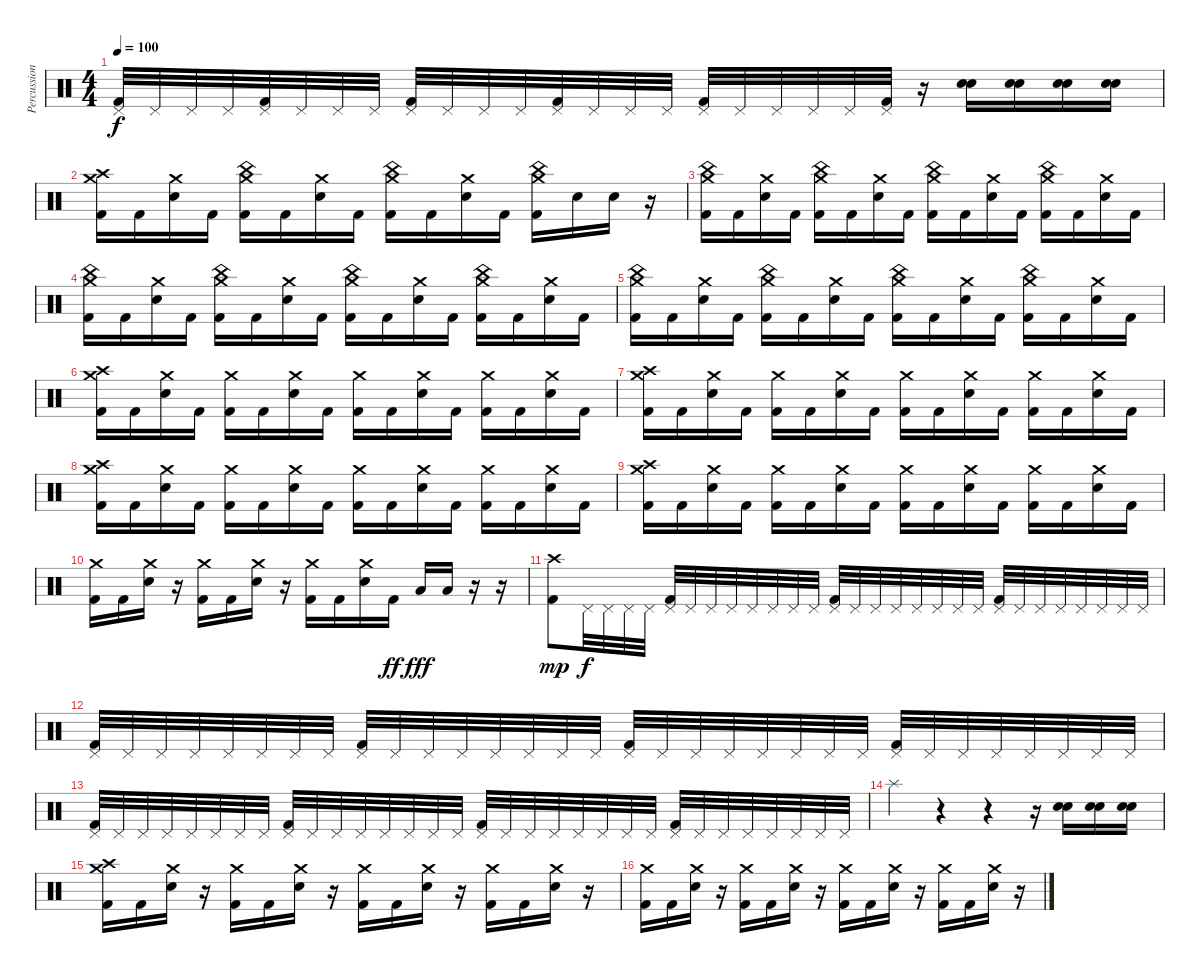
\track ("Percussion" "Percussion") {instrument percussion}
\staff {score}
\articulation defaults
\ts (4 4)
\tempo 100
\clef neutral
\ks c
("Pedal Hi-Hat (hit)" "Kick (hit) 2").32{dy f} "Pedal Hi-Hat (hit)".32 "Pedal Hi-Hat (hit)".32 "Pedal Hi-Hat (hit)".32 ("Pedal Hi-Hat (hit)" "Kick (hit) 2").32 "Pedal Hi-Hat (hit)".32 "Pedal Hi-Hat (hit)".32 "Pedal Hi-Hat (hit)".32 ("Pedal Hi-Hat (hit)" "Kick (hit) 2").32 "Pedal Hi-Hat (hit)".32 "Pedal Hi-Hat (hit)".32 "Pedal Hi-Hat (hit)".32 ("Pedal Hi-Hat (hit)" "Kick (hit) 2").32 "Pedal Hi-Hat (hit)".32 "Pedal Hi-Hat (hit)".32 "Pedal Hi-Hat (hit)".32 ("Pedal Hi-Hat (hit)" "Kick (hit) 2").32 "Pedal Hi-Hat (hit)".32 "Pedal Hi-Hat (hit)".32 "Pedal Hi-Hat (hit)".32 "Pedal Hi-Hat (hit)".32 ("Pedal Hi-Hat (hit)" "Kick (hit) 2").32 r.16 ("Electric Snare (hit)" "Electric Snare (hit)").16 ("Electric Snare (hit)" "Electric Snare (hit)").16 ("Electric Snare (hit)" "Electric Snare (hit)").16 ("Electric Snare (hit)" "Electric Snare (hit)").16 |
("Crash medium (hit)" "Crash high (hit)" "Kick (hit) 2").16 "Kick (hit) 2".16 ("Crash medium (hit)" "Electric Snare (hit)").16 "Kick (hit) 2".16 ("Crash medium (hit)" "China (hit)" "Kick (hit) 2").16 "Kick (hit) 2".16 ("Crash medium (hit)" "Electric Snare (hit)").16 "Kick (hit) 2".16 ("Crash medium (hit)" "China (hit)" "Kick (hit) 2").16 "Kick (hit) 2".16 ("Crash medium (hit)" "Electric Snare (hit)").16 "Kick (hit) 2".16 ("Crash medium (hit)" "China (hit)" "Kick (hit) 2").16 "Electric Snare (hit)".16 "Electric Snare (hit)".16 r.16 |
("Crash medium (hit)" "China (hit)" "Kick (hit) 2").16 "Kick (hit) 2".16 ("Crash medium (hit)" "Electric Snare (hit)").16 "Kick (hit) 2".16 ("Crash medium (hit)" "China (hit)" "Kick (hit) 2").16 "Kick (hit) 2".16 ("Crash medium (hit)" "Electric Snare (hit)").16 "Kick (hit) 2".16 ("Crash medium (hit)" "China (hit)" "Kick (hit) 2").16 "Kick (hit) 2".16 ("Crash medium (hit)" "Electric Snare (hit)").16 "Kick (hit) 2".16 ("Crash medium (hit)" "China (hit)" "Kick (hit) 2").16 "Kick (hit) 2".16 ("Crash medium (hit)" "Electric Snare (hit)").16 "Kick (hit) 2".16 |
("Crash medium (hit)" "China (hit)" "Kick (hit) 2").16 "Kick (hit) 2".16 ("Crash medium (hit)" "Electric Snare (hit)").16 "Kick (hit) 2".16 ("Crash medium (hit)" "China (hit)" "Kick (hit) 2").16 "Kick (hit) 2".16 ("Crash medium (hit)" "Electric Snare (hit)").16 "Kick (hit) 2".16 ("Crash medium (hit)" "China (hit)" "Kick (hit) 2").16 "Kick (hit) 2".16 ("Crash medium (hit)" "Electric Snare (hit)").16 "Kick (hit) 2".16 ("Crash medium (hit)" "China (hit)" "Kick (hit) 2").16 "Kick (hit) 2".16 ("Crash medium (hit)" "Electric Snare (hit)").16 "Kick (hit) 2".16 |
("Crash medium (hit)" "China (hit)" "Kick (hit) 2").16 "Kick (hit) 2".16 ("Crash medium (hit)" "Electric Snare (hit)").16 "Kick (hit) 2".16 ("Crash medium (hit)" "China (hit)" "Kick (hit) 2").16 "Kick (hit) 2".16 ("Crash medium (hit)" "Electric Snare (hit)").16 "Kick (hit) 2".16 ("Crash medium (hit)" "China (hit)" "Kick (hit) 2").16 "Kick (hit) 2".16 ("Crash medium (hit)" "Electric Snare (hit)").16 "Kick (hit) 2".16 ("Crash medium (hit)" "China (hit)" "Kick (hit) 2").16 "Kick (hit) 2".16 ("Crash medium (hit)" "Electric Snare (hit)").16 "Kick (hit) 2".16 |
("Crash medium (hit)" "Crash high (hit)" "Kick (hit) 2").16 "Kick (hit) 2".16 ("Crash medium (hit)" "Electric Snare (hit)").16 "Kick (hit) 2".16 ("Crash medium (hit)" "Kick (hit) 2").16 "Kick (hit) 2".16 ("Crash medium (hit)" "Electric Snare (hit)").16 "Kick (hit) 2".16 ("Crash medium (hit)" "Kick (hit) 2").16 "Kick (hit) 2".16 ("Crash medium (hit)" "Electric Snare (hit)").16 "Kick (hit) 2".16 ("Crash medium (hit)" "Kick (hit) 2").16 "Kick (hit) 2".16 ("Crash medium (hit)" "Electric Snare (hit)").16 "Kick (hit) 2".16 |
("Crash medium (hit)" "Crash high (hit)" "Kick (hit) 2").16 "Kick (hit) 2".16 ("Crash medium (hit)" "Electric Snare (hit)").16 "Kick (hit) 2".16 ("Crash medium (hit)" "Kick (hit) 2").16 "Kick (hit) 2".16 ("Crash medium (hit)" "Electric Snare (hit)").16 "Kick (hit) 2".16 ("Crash medium (hit)" "Kick (hit) 2").16 "Kick (hit) 2".16 ("Crash medium (hit)" "Electric Snare (hit)").16 "Kick (hit) 2".16 ("Crash medium (hit)" "Kick (hit) 2").16 "Kick (hit) 2".16 ("Crash medium (hit)" "Electric Snare (hit)").16 "Kick (hit) 2".16 |
("Crash medium (hit)" "Crash high (hit)" "Kick (hit) 2").16 "Kick (hit) 2".16 ("Crash medium (hit)" "Electric Snare (hit)").16 "Kick (hit) 2".16 ("Crash medium (hit)" "Kick (hit) 2").16 "Kick (hit) 2".16 ("Crash medium (hit)" "Electric Snare (hit)").16 "Kick (hit) 2".16 ("Crash medium (hit)" "Kick (hit) 2").16 "Kick (hit) 2".16 ("Crash medium (hit)" "Electric Snare (hit)").16 "Kick (hit) 2".16 ("Crash medium (hit)" "Kick (hit) 2").16 "Kick (hit) 2".16 ("Crash medium (hit)" "Electric Snare (hit)").16 "Kick (hit) 2".16 |
("Crash medium (hit)" "Crash high (hit)" "Kick (hit) 2").16 "Kick (hit) 2".16 ("Crash medium (hit)" "Electric Snare (hit)").16 "Kick (hit) 2".16 ("Crash medium (hit)" "Kick (hit) 2").16 "Kick (hit) 2".16 ("Crash medium (hit)" "Electric Snare (hit)").16 "Kick (hit) 2".16 ("Crash medium (hit)" "Kick (hit) 2").16 "Kick (hit) 2".16 ("Crash medium (hit)" "Electric Snare (hit)").16 "Kick (hit) 2".16 ("Crash medium (hit)" "Kick (hit) 2").16 "Kick (hit) 2".16 ("Crash medium (hit)" "Electric Snare (hit)").16 "Kick (hit) 2".16 |
("Crash medium (hit)" "Kick (hit) 2").16 "Kick (hit) 2".16 ("Crash medium (hit)" "Electric Snare (hit)").16 r.16 ("Crash medium (hit)" "Kick (hit) 2").16 "Kick (hit) 2".16 ("Crash medium (hit)" "Electric Snare (hit)").16 r.16 ("Crash medium (hit)" "Kick (hit) 2").16 "Kick (hit) 2".16 ("Crash medium (hit)" "Electric Snare (hit)").16 "Kick (hit) 2".16{dy ff} "Low Floor Tom (hit)".16{dy fff} "Low Floor Tom (hit)".16 r.16 r.16 |
("Crash high (hit)" "Kick (hit) 2").8{dy mp} "Pedal Hi-Hat (hit)".32{dy f} "Pedal Hi-Hat (hit)".32 "Pedal Hi-Hat (hit)".32 "Pedal Hi-Hat (hit)".32 ("Pedal Hi-Hat (hit)" "Kick (hit) 2").32 "Pedal Hi-Hat (hit)".32 "Pedal Hi-Hat (hit)".32 "Pedal Hi-Hat (hit)".32 "Pedal Hi-Hat (hit)".32 "Pedal Hi-Hat (hit)".32 "Pedal Hi-Hat (hit)".32 "Pedal Hi-Hat (hit)".32 ("Pedal Hi-Hat (hit)" "Kick (hit) 2").32 "Pedal Hi-Hat (hit)".32 "Pedal Hi-Hat (hit)".32 "Pedal Hi-Hat (hit)".32 "Pedal Hi-Hat (hit)".32 "Pedal Hi-Hat (hit)".32 "Pedal Hi-Hat (hit)".32 "Pedal Hi-Hat (hit)".32 ("Pedal Hi-Hat (hit)" "Kick (hit) 2").32 "Pedal Hi-Hat (hit)".32 "Pedal Hi-Hat (hit)".32 "Pedal Hi-Hat (hit)".32 "Pedal Hi-Hat (hit)".32 "Pedal Hi-Hat (hit)".32 "Pedal Hi-Hat (hit)".32 "Pedal Hi-Hat (hit)".32 |
("Pedal Hi-Hat (hit)" "Kick (hit) 2").32 "Pedal Hi-Hat (hit)".32 "Pedal Hi-Hat (hit)".32 "Pedal Hi-Hat (hit)".32 "Pedal Hi-Hat (hit)".32 "Pedal Hi-Hat (hit)".32 "Pedal Hi-Hat (hit)".32 "Pedal Hi-Hat (hit)".32 ("Pedal Hi-Hat (hit)" "Kick (hit) 2").32 "Pedal Hi-Hat (hit)".32 "Pedal Hi-Hat (hit)".32 "Pedal Hi-Hat (hit)".32 "Pedal Hi-Hat (hit)".32 "Pedal Hi-Hat (hit)".32 "Pedal Hi-Hat (hit)".32 "Pedal Hi-Hat (hit)".32 ("Pedal Hi-Hat (hit)" "Kick (hit) 2").32 "Pedal Hi-Hat (hit)".32 "Pedal Hi-Hat (hit)".32 "Pedal Hi-Hat (hit)".32 "Pedal Hi-Hat (hit)".32 "Pedal Hi-Hat (hit)".32 "Pedal Hi-Hat (hit)".32 "Pedal Hi-Hat (hit)".32 ("Pedal Hi-Hat (hit)" "Kick (hit) 2").32 "Pedal Hi-Hat (hit)".32 "Pedal Hi-Hat (hit)".32 "Pedal Hi-Hat (hit)".32 "Pedal Hi-Hat (hit)".32 "Pedal Hi-Hat (hit)".32 "Pedal Hi-Hat (hit)".32 "Pedal Hi-Hat (hit)".32 |
("Pedal Hi-Hat (hit)" "Kick (hit) 2").32 "Pedal Hi-Hat (hit)".32 "Pedal Hi-Hat (hit)".32 "Pedal Hi-Hat (hit)".32 "Pedal Hi-Hat (hit)".32 "Pedal Hi-Hat (hit)".32 "Pedal Hi-Hat (hit)".32 "Pedal Hi-Hat (hit)".32 ("Pedal Hi-Hat (hit)" "Kick (hit) 2").32 "Pedal Hi-Hat (hit)".32 "Pedal Hi-Hat (hit)".32 "Pedal Hi-Hat (hit)".32 "Pedal Hi-Hat (hit)".32 "Pedal Hi-Hat (hit)".32 "Pedal Hi-Hat (hit)".32 "Pedal Hi-Hat (hit)".32 ("Pedal Hi-Hat (hit)" "Kick (hit) 2").32 "Pedal Hi-Hat (hit)".32 "Pedal Hi-Hat (hit)".32 "Pedal Hi-Hat (hit)".32 "Pedal Hi-Hat (hit)".32 "Pedal Hi-Hat (hit)".32 "Pedal Hi-Hat (hit)".32 "Pedal Hi-Hat (hit)".32 ("Pedal Hi-Hat (hit)" "Kick (hit) 2").32 "Pedal Hi-Hat (hit)".32 "Pedal Hi-Hat (hit)".32 "Pedal Hi-Hat (hit)".32 "Pedal Hi-Hat (hit)".32 "Pedal Hi-Hat (hit)".32 "Pedal Hi-Hat (hit)".32 "Pedal Hi-Hat (hit)".32 |
"Splash (hit)".4 r.4 r.4 r.16 ("Electric Snare (hit)" "Electric Snare (hit)").16 ("Electric Snare (hit)" "Electric Snare (hit)").16 ("Electric Snare (hit)" "Electric Snare (hit)").16 |
("Crash medium (hit)" "Crash high (hit)" "Kick (hit) 2").16 "Kick (hit) 2".16 ("Crash medium (hit)" "Electric Snare (hit)").16 r.16 ("Crash medium (hit)" "Kick (hit) 2").16 "Kick (hit) 2".16 ("Crash medium (hit)" "Electric Snare (hit)").16 r.16 ("Crash medium (hit)" "Kick (hit) 2").16 "Kick (hit) 2".16 ("Crash medium (hit)" "Electric Snare (hit)").16 r.16 ("Crash medium (hit)" "Kick (hit) 2").16 "Kick (hit) 2".16 ("Crash medium (hit)" "Electric Snare (hit)").16 r.16 |
("Crash medium (hit)" "Kick (hit) 2").16 "Kick (hit) 2".16 ("Crash medium (hit)" "Electric Snare (hit)").16 r.16 ("Crash medium (hit)" "Kick (hit) 2").16 "Kick (hit) 2".16 ("Crash medium (hit)" "Electric Snare (hit)").16 r.16 ("Crash medium (hit)" "Kick (hit) 2").16 "Kick (hit) 2".16 ("Crash medium (hit)" "Electric Snare (hit)").16 r.16 ("Crash medium (hit)" "Kick (hit) 2").16 "Kick (hit) 2".16 ("Crash medium (hit)" "Electric Snare (hit)").16 r.16
